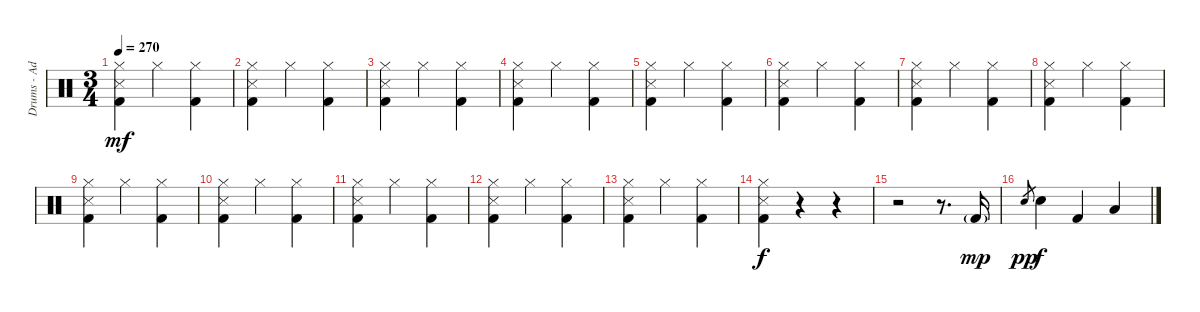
\track ("Drums - Adam" "Drums - Ad") {instrument percussion}
\staff {score}
\articulation defaults
\ts (3 4)
\tempo 270
\clef neutral
\ks c
("Hi-Hat (closed)" "Kick (hit) 2" "Snare (side stick) 3").4{dy mf} "Hi-Hat (closed)".4 ("Hi-Hat (closed)" "Kick (hit) 2").4 |
("Hi-Hat (closed)" "Kick (hit) 2" "Snare (side stick) 3").4 "Hi-Hat (closed)".4 ("Hi-Hat (closed)" "Kick (hit) 2").4 |
("Hi-Hat (closed)" "Kick (hit) 2" "Snare (side stick) 3").4 "Hi-Hat (closed)".4 ("Hi-Hat (closed)" "Kick (hit) 2").4 |
("Hi-Hat (closed)" "Kick (hit) 2" "Snare (side stick) 3").4 "Hi-Hat (closed)".4 ("Hi-Hat (closed)" "Kick (hit) 2").4 |
("Hi-Hat (closed)" "Kick (hit) 2" "Snare (side stick) 3").4 "Hi-Hat (closed)".4 ("Hi-Hat (closed)" "Kick (hit) 2").4 |
("Hi-Hat (closed)" "Kick (hit) 2" "Snare (side stick) 3").4 "Hi-Hat (closed)".4 ("Hi-Hat (closed)" "Kick (hit) 2").4 |
("Hi-Hat (closed)" "Kick (hit) 2" "Snare (side stick) 3").4 "Hi-Hat (closed)".4 ("Hi-Hat (closed)" "Kick (hit) 2").4 |
("Hi-Hat (closed)" "Kick (hit) 2" "Snare (side stick) 3").4 "Hi-Hat (closed)".4 ("Hi-Hat (closed)" "Kick (hit) 2").4 |
("Hi-Hat (closed)" "Kick (hit) 2" "Snare (side stick) 3").4 "Hi-Hat (closed)".4 ("Hi-Hat (closed)" "Kick (hit) 2").4 |
("Hi-Hat (closed)" "Kick (hit) 2" "Snare (side stick) 3").4 "Hi-Hat (closed)".4 ("Hi-Hat (closed)" "Kick (hit) 2").4 |
("Hi-Hat (closed)" "Kick (hit) 2" "Snare (side stick) 3").4 "Hi-Hat (closed)".4 ("Hi-Hat (closed)" "Kick (hit) 2").4 |
("Hi-Hat (closed)" "Kick (hit) 2" "Snare (side stick) 3").4 "Hi-Hat (closed)".4 ("Hi-Hat (closed)" "Kick (hit) 2").4 |
("Hi-Hat (closed)" "Kick (hit) 2" "Snare (side stick) 3").4 "Hi-Hat (closed)".4 ("Hi-Hat (closed)" "Kick (hit) 2").4 |
("Hi-Hat (closed)" "Kick (hit) 2" "Snare (side stick) 3").4{dy f} r.4 r.4 |
r.2 r.8{d} "Kick (hit) 2"{g}.16{dy mp} |
"Electric Snare (hit)".8{gr dy pp} "Electric Snare (hit)".4{dy f} "Kick (hit) 2".4 "Low Tom (hit)".4
